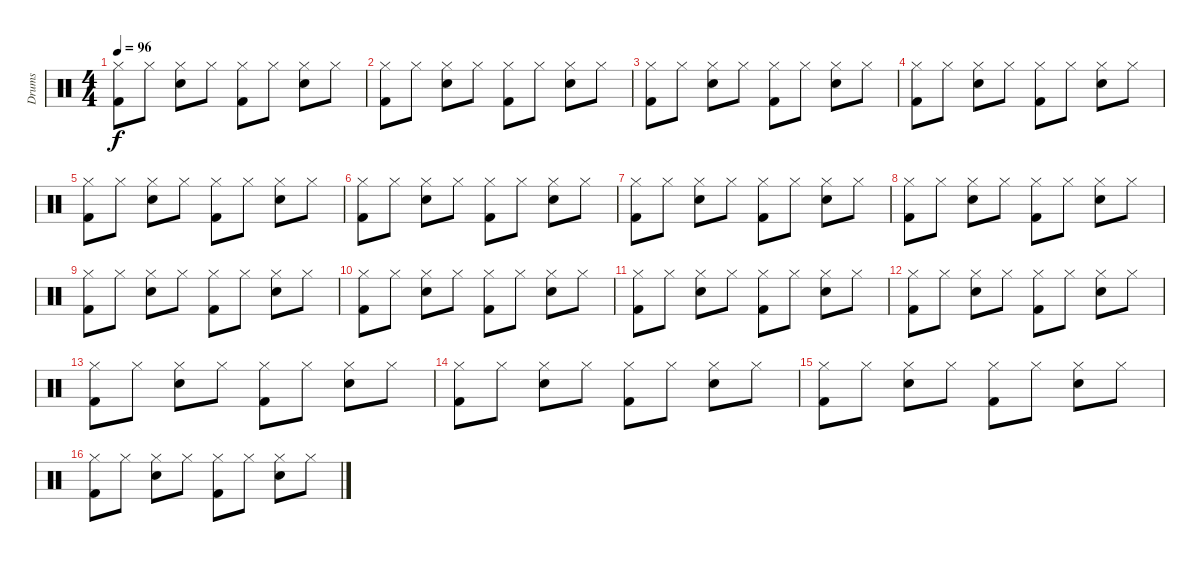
\track ("Drums" "Drums") {instrument percussion}
\staff {score}
\articulation defaults
\ts (4 4)
\tempo 96
\clef neutral
\ks c
("Hi-Hat (closed)" "Kick (hit) 2").8{dy f} "Hi-Hat (closed)".8 ("Hi-Hat (closed)" "Snare (hit) 2").8 "Hi-Hat (closed)".8 ("Hi-Hat (closed)" "Kick (hit) 2").8 "Hi-Hat (closed)".8 ("Hi-Hat (closed)" "Snare (hit) 2").8 "Hi-Hat (closed)".8 |
("Hi-Hat (closed)" "Kick (hit) 2").8 "Hi-Hat (closed)".8 ("Hi-Hat (closed)" "Snare (hit) 2").8 "Hi-Hat (closed)".8 ("Hi-Hat (closed)" "Kick (hit) 2").8 "Hi-Hat (closed)".8 ("Hi-Hat (closed)" "Snare (hit) 2").8 "Hi-Hat (closed)".8 |
("Hi-Hat (closed)" "Kick (hit) 2").8 "Hi-Hat (closed)".8 ("Hi-Hat (closed)" "Snare (hit) 2").8 "Hi-Hat (closed)".8 ("Hi-Hat (closed)" "Kick (hit) 2").8 "Hi-Hat (closed)".8 ("Hi-Hat (closed)" "Snare (hit) 2").8 "Hi-Hat (closed)".8 |
("Hi-Hat (closed)" "Kick (hit) 2").8 "Hi-Hat (closed)".8 ("Hi-Hat (closed)" "Snare (hit) 2").8 "Hi-Hat (closed)".8 ("Hi-Hat (closed)" "Kick (hit) 2").8 "Hi-Hat (closed)".8 ("Hi-Hat (closed)" "Snare (hit) 2").8 "Hi-Hat (closed)".8 |
("Hi-Hat (closed)" "Kick (hit) 2").8 "Hi-Hat (closed)".8 ("Hi-Hat (closed)" "Snare (hit) 2").8 "Hi-Hat (closed)".8 ("Hi-Hat (closed)" "Kick (hit) 2").8 "Hi-Hat (closed)".8 ("Hi-Hat (closed)" "Snare (hit) 2").8 "Hi-Hat (closed)".8 |
("Hi-Hat (closed)" "Kick (hit) 2").8 "Hi-Hat (closed)".8 ("Hi-Hat (closed)" "Snare (hit) 2").8 "Hi-Hat (closed)".8 ("Hi-Hat (closed)" "Kick (hit) 2").8 "Hi-Hat (closed)".8 ("Hi-Hat (closed)" "Snare (hit) 2").8 "Hi-Hat (closed)".8 |
("Hi-Hat (closed)" "Kick (hit) 2").8 "Hi-Hat (closed)".8 ("Hi-Hat (closed)" "Snare (hit) 2").8 "Hi-Hat (closed)".8 ("Hi-Hat (closed)" "Kick (hit) 2").8 "Hi-Hat (closed)".8 ("Hi-Hat (closed)" "Snare (hit) 2").8 "Hi-Hat (closed)".8 |
("Hi-Hat (closed)" "Kick (hit) 2").8 "Hi-Hat (closed)".8 ("Hi-Hat (closed)" "Snare (hit) 2").8 "Hi-Hat (closed)".8 ("Hi-Hat (closed)" "Kick (hit) 2").8 "Hi-Hat (closed)".8 ("Hi-Hat (closed)" "Snare (hit) 2").8 "Hi-Hat (closed)".8 |
("Hi-Hat (closed)" "Kick (hit) 2").8 "Hi-Hat (closed)".8 ("Hi-Hat (closed)" "Snare (hit) 2").8 "Hi-Hat (closed)".8 ("Hi-Hat (closed)" "Kick (hit) 2").8 "Hi-Hat (closed)".8 ("Hi-Hat (closed)" "Snare (hit) 2").8 "Hi-Hat (closed)".8 |
("Hi-Hat (closed)" "Kick (hit) 2").8 "Hi-Hat (closed)".8 ("Hi-Hat (closed)" "Snare (hit) 2").8 "Hi-Hat (closed)".8 ("Hi-Hat (closed)" "Kick (hit) 2").8 "Hi-Hat (closed)".8 ("Hi-Hat (closed)" "Snare (hit) 2").8 "Hi-Hat (closed)".8 |
("Hi-Hat (closed)" "Kick (hit) 2").8 "Hi-Hat (closed)".8 ("Hi-Hat (closed)" "Snare (hit) 2").8 "Hi-Hat (closed)".8 ("Hi-Hat (closed)" "Kick (hit) 2").8 "Hi-Hat (closed)".8 ("Hi-Hat (closed)" "Snare (hit) 2").8 "Hi-Hat (closed)".8 |
("Hi-Hat (closed)" "Kick (hit) 2").8 "Hi-Hat (closed)".8 ("Hi-Hat (closed)" "Snare (hit) 2").8 "Hi-Hat (closed)".8 ("Hi-Hat (closed)" "Kick (hit) 2").8 "Hi-Hat (closed)".8 ("Hi-Hat (closed)" "Snare (hit) 2").8 "Hi-Hat (closed)".8 |
("Hi-Hat (closed)" "Kick (hit) 2").8 "Hi-Hat (closed)".8 ("Hi-Hat (closed)" "Snare (hit) 2").8 "Hi-Hat (closed)".8 ("Hi-Hat (closed)" "Kick (hit) 2").8 "Hi-Hat (closed)".8 ("Hi-Hat (closed)" "Snare (hit) 2").8 "Hi-Hat (closed)".8 |
("Hi-Hat (closed)" "Kick (hit) 2").8 "Hi-Hat (closed)".8 ("Hi-Hat (closed)" "Snare (hit) 2").8 "Hi-Hat (closed)".8 ("Hi-Hat (closed)" "Kick (hit) 2").8 "Hi-Hat (closed)".8 ("Hi-Hat (closed)" "Snare (hit) 2").8 "Hi-Hat (closed)".8 |
("Hi-Hat (closed)" "Kick (hit) 2").8 "Hi-Hat (closed)".8 ("Hi-Hat (closed)" "Snare (hit) 2").8 "Hi-Hat (closed)".8 ("Hi-Hat (closed)" "Kick (hit) 2").8 "Hi-Hat (closed)".8 ("Hi-Hat (closed)" "Snare (hit) 2").8 "Hi-Hat (closed)".8 |
("Hi-Hat (closed)" "Kick (hit) 2").8 "Hi-Hat (closed)".8 ("Hi-Hat (closed)" "Snare (hit) 2").8 "Hi-Hat (closed)".8 ("Hi-Hat (closed)" "Kick (hit) 2").8 "Hi-Hat (closed)".8 ("Hi-Hat (closed)" "Snare (hit) 2").8 "Hi-Hat (closed)".8
